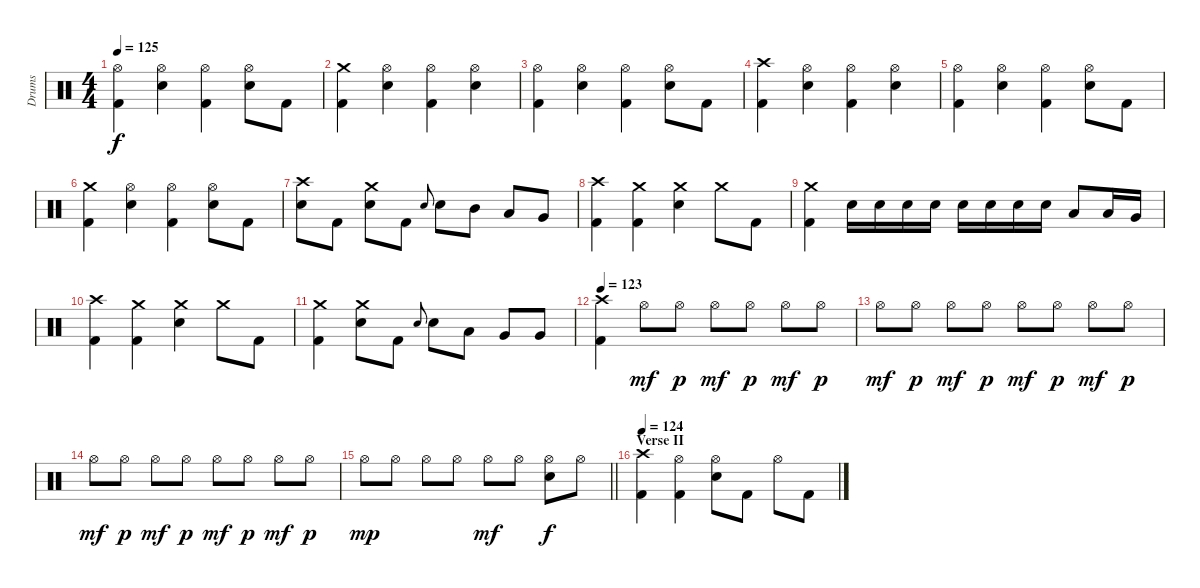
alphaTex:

\track ("Drums" "Drums") {instrument percussion}
\staff {score}
\articulation defaults
\ts (4 4)
\tempo 125
\clef neutral
\ks c
("Hi-Hat (open)" "Kick (hit) 2").4{dy f} ("Hi-Hat (open)" "Snare (hit) 2").4 ("Hi-Hat (open)" "Kick (hit) 2").4 ("Hi-Hat (open)" "Snare (hit) 2").8 "Kick (hit) 2".8 |
("Crash medium (hit)" "Kick (hit) 2").4 ("Hi-Hat (open)" "Snare (hit) 2").4 ("Hi-Hat (open)" "Kick (hit) 2").4 ("Hi-Hat (open)" "Snare (hit) 2").4 |
("Hi-Hat (open)" "Kick (hit) 2").4 ("Hi-Hat (open)" "Snare (hit) 2").4 ("Hi-Hat (open)" "Kick (hit) 2").4 ("Hi-Hat (open)" "Snare (hit) 2").8 "Kick (hit) 2".8 |
("Crash high (hit)" "Kick (hit) 2").4 ("Hi-Hat (open)" "Snare (hit) 2").4 ("Hi-Hat (open)" "Kick (hit) 2").4 ("Hi-Hat (open)" "Snare (hit) 2").4 |
("Hi-Hat (open)" "Kick (hit) 2").4 ("Hi-Hat (open)" "Snare (hit) 2").4 ("Hi-Hat (open)" "Kick (hit) 2").4 ("Hi-Hat (open)" "Snare (hit) 2").8 "Kick (hit) 2".8 |
("Crash medium (hit)" "Kick (hit) 2").4 ("Hi-Hat (open)" "Snare (hit) 2").4 ("Hi-Hat (open)" "Kick (hit) 2").4 ("Hi-Hat (open)" "Snare (hit) 2").8 "Kick (hit) 2".8 |
("Crash high (hit)" "Snare (hit) 2").8 "Kick (hit) 2".8 ("Crash medium (hit)" "Snare (hit) 2").8 "Kick (hit) 2".8 "Snare (hit) 2".8{gr onbeat} "Snare (hit) 2".8 "Mid Tom (hit)".8 "Low Tom (hit)".8 "Very Low Tom (hit)".8 |
("Crash high (hit)" "Kick (hit) 2").4 ("Crash medium (hit)" "Kick (hit) 2").4 ("Crash medium (hit)" "Snare (hit) 2").4 "Crash medium (hit)".8 "Kick (hit) 2".8 |
("Crash medium (hit)" "Kick (hit) 2").4 "Snare (hit) 2".16 "Snare (hit) 2".16 "Snare (hit) 2".16 "Snare (hit) 2".16 "Snare (hit) 2".16 "Snare (hit) 2".16 "Snare (hit) 2".16 "Snare (hit) 2".16 "Low Tom (hit)".8 "Low Tom (hit)".16 "Very Low Tom (hit)".16 |
("Crash high (hit)" "Kick (hit) 2").4 ("Crash medium (hit)" "Kick (hit) 2").4 ("Crash medium (hit)" "Snare (hit) 2").4 "Crash medium (hit)".8 "Kick (hit) 2".8 |
("Crash medium (hit)" "Kick (hit) 2").4 ("Crash medium (hit)" "Snare (hit) 2").8 "Kick (hit) 2".8 "Snare (hit) 2".8{gr onbeat} "Snare (hit) 2".8 "Low Tom (hit)".8 "Very Low Tom (hit)".8 "Very Low Tom (hit)".8 |
\tempo 123
("Crash high (hit)" "Kick (hit) 2").4 "Hi-Hat (open)".8{dy mf} "Hi-Hat (open)".8{dy p} "Hi-Hat (open)".8{dy mf} "Hi-Hat (open)".8{dy p} "Hi-Hat (open)".8{dy mf} "Hi-Hat (open)".8{dy p} |
"Hi-Hat (open)".8{dy mf} "Hi-Hat (open)".8{dy p} "Hi-Hat (open)".8{dy mf} "Hi-Hat (open)".8{dy p} "Hi-Hat (open)".8{dy mf} "Hi-Hat (open)".8{dy p} "Hi-Hat (open)".8{dy mf} "Hi-Hat (open)".8{dy p} |
"Hi-Hat (open)".8{dy mf} "Hi-Hat (open)".8{dy p} "Hi-Hat (open)".8{dy mf} "Hi-Hat (open)".8{dy p} "Hi-Hat (open)".8{dy mf} "Hi-Hat (open)".8{dy p} "Hi-Hat (open)".8{dy mf} "Hi-Hat (open)".8{dy p} |
\barLineRight lightlight "Hi-Hat (open)".8{dy mp} "Hi-Hat (open)".8 "Hi-Hat (open)".8 "Hi-Hat (open)".8 "Hi-Hat (open)".8{dy mf} "Hi-Hat (open)".8
("Hi-Hat (open)" "Snare (hit) 2").8{dy f} "Hi-Hat (open)".8 |
\section ("" "Verse II")
\tempo 124
("Crash high (hit)" "Kick (hit) 2").4 ("Hi-Hat (open)" "Kick (hit) 2").4 ("Hi-Hat (open)" "Snare (hit) 2").8 "Kick (hit) 2".8 "Hi-Hat (open)".8 "Kick (hit) 2".8
